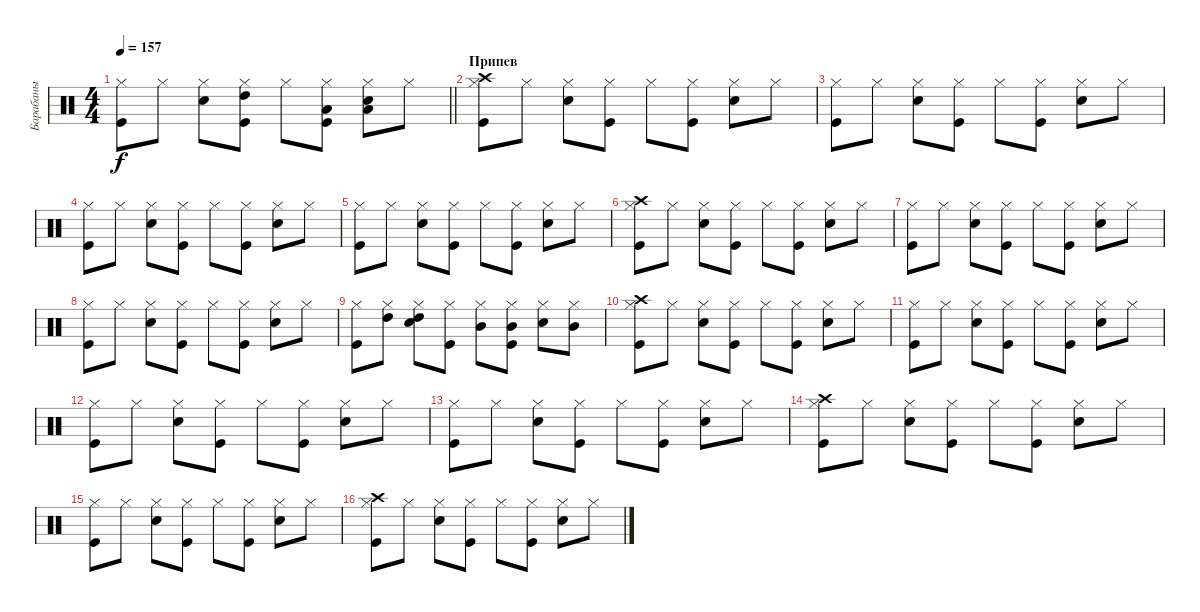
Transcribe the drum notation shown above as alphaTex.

\track ("Барабаны" "Барабаны") {instrument percussion}
\staff {score}
\articulation defaults
\ts (4 4)
\tempo 157
\clef neutral
\barLineRight lightlight
\ks c
("Kick (hit)" "Hi-Hat (closed)").8{dy f} "Hi-Hat (closed)".8 ("Snare (hit) 2" "Hi-Hat (closed)").8 ("Kick (hit)" "Hi-Hat (closed)" "High Tom (hit)").8 "Hi-Hat (closed)".8 ("Kick (hit)" "Hi-Hat (closed)" "Low Tom (hit)").8 ("Snare (hit) 2" "Hi-Hat (closed)" "Low Tom (hit)").8 "Hi-Hat (closed)".8 |
\section ("" "Припев")
("Kick (hit)" "Hi-Hat (closed)" "Crash high (hit)").8 "Hi-Hat (closed)".8 ("Snare (hit) 2" "Hi-Hat (closed)").8 ("Kick (hit)" "Hi-Hat (closed)").8 "Hi-Hat (closed)".8 ("Kick (hit)" "Hi-Hat (closed)").8 ("Snare (hit) 2" "Hi-Hat (closed)").8 "Hi-Hat (closed)".8 |
("Kick (hit)" "Hi-Hat (closed)").8 "Hi-Hat (closed)".8 ("Snare (hit) 2" "Hi-Hat (closed)").8 ("Kick (hit)" "Hi-Hat (closed)").8 "Hi-Hat (closed)".8 ("Kick (hit)" "Hi-Hat (closed)").8 ("Snare (hit) 2" "Hi-Hat (closed)").8 "Hi-Hat (closed)".8 |
("Kick (hit)" "Hi-Hat (closed)").8 "Hi-Hat (closed)".8 ("Snare (hit) 2" "Hi-Hat (closed)").8 ("Kick (hit)" "Hi-Hat (closed)").8 "Hi-Hat (closed)".8 ("Kick (hit)" "Hi-Hat (closed)").8 ("Snare (hit) 2" "Hi-Hat (closed)").8 "Hi-Hat (closed)".8 |
("Kick (hit)" "Hi-Hat (closed)").8 "Hi-Hat (closed)".8 ("Snare (hit) 2" "Hi-Hat (closed)").8 ("Kick (hit)" "Hi-Hat (closed)").8 "Hi-Hat (closed)".8 ("Kick (hit)" "Hi-Hat (closed)").8 ("Snare (hit) 2" "Hi-Hat (closed)").8 "Hi-Hat (closed)".8 |
("Kick (hit)" "Hi-Hat (closed)" "Crash high (hit)").8 "Hi-Hat (closed)".8 ("Snare (hit) 2" "Hi-Hat (closed)").8 ("Kick (hit)" "Hi-Hat (closed)").8 "Hi-Hat (closed)".8 ("Kick (hit)" "Hi-Hat (closed)").8 ("Snare (hit) 2" "Hi-Hat (closed)").8 "Hi-Hat (closed)".8 |
("Kick (hit)" "Hi-Hat (closed)").8 "Hi-Hat (closed)".8 ("Snare (hit) 2" "Hi-Hat (closed)").8 ("Kick (hit)" "Hi-Hat (closed)").8 "Hi-Hat (closed)".8 ("Kick (hit)" "Hi-Hat (closed)").8 ("Snare (hit) 2" "Hi-Hat (closed)").8 "Hi-Hat (closed)".8 |
("Kick (hit)" "Hi-Hat (closed)").8 "Hi-Hat (closed)".8 ("Snare (hit) 2" "Hi-Hat (closed)").8 ("Kick (hit)" "Hi-Hat (closed)").8 "Hi-Hat (closed)".8 ("Kick (hit)" "Hi-Hat (closed)").8 ("Snare (hit) 2" "Hi-Hat (closed)").8 "Hi-Hat (closed)".8 |
("Kick (hit)" "Hi-Hat (closed)").8 ("Hi-Hat (closed)" "High Tom (hit)").8 ("Snare (hit) 2" "Hi-Hat (closed)" "High Tom (hit)").8 ("Kick (hit)" "Hi-Hat (closed)").8 ("Hi-Hat (closed)" "Mid Tom (hit)").8 ("Kick (hit)" "Hi-Hat (closed)" "Mid Tom (hit)").8 ("Snare (hit) 2" "Hi-Hat (closed)").8 ("Hi-Hat (closed)" "Mid Tom (hit)").8 |
("Kick (hit)" "Hi-Hat (closed)" "Crash high (hit)").8 "Hi-Hat (closed)".8 ("Snare (hit) 2" "Hi-Hat (closed)").8 ("Kick (hit)" "Hi-Hat (closed)").8 "Hi-Hat (closed)".8 ("Kick (hit)" "Hi-Hat (closed)").8 ("Snare (hit) 2" "Hi-Hat (closed)").8 "Hi-Hat (closed)".8 |
("Kick (hit)" "Hi-Hat (closed)").8 "Hi-Hat (closed)".8 ("Snare (hit) 2" "Hi-Hat (closed)").8 ("Kick (hit)" "Hi-Hat (closed)").8 "Hi-Hat (closed)".8 ("Kick (hit)" "Hi-Hat (closed)").8 ("Snare (hit) 2" "Hi-Hat (closed)").8 "Hi-Hat (closed)".8 |
("Kick (hit)" "Hi-Hat (closed)").8 "Hi-Hat (closed)".8 ("Snare (hit) 2" "Hi-Hat (closed)").8 ("Kick (hit)" "Hi-Hat (closed)").8 "Hi-Hat (closed)".8 ("Kick (hit)" "Hi-Hat (closed)").8 ("Snare (hit) 2" "Hi-Hat (closed)").8 "Hi-Hat (closed)".8 |
("Kick (hit)" "Hi-Hat (closed)").8 "Hi-Hat (closed)".8 ("Snare (hit) 2" "Hi-Hat (closed)").8 ("Kick (hit)" "Hi-Hat (closed)").8 "Hi-Hat (closed)".8 ("Kick (hit)" "Hi-Hat (closed)").8 ("Snare (hit) 2" "Hi-Hat (closed)").8 "Hi-Hat (closed)".8 |
("Kick (hit)" "Hi-Hat (closed)" "Crash high (hit)").8 "Hi-Hat (closed)".8 ("Snare (hit) 2" "Hi-Hat (closed)").8 ("Kick (hit)" "Hi-Hat (closed)").8 "Hi-Hat (closed)".8 ("Kick (hit)" "Hi-Hat (closed)").8 ("Snare (hit) 2" "Hi-Hat (closed)").8 "Hi-Hat (closed)".8 |
("Kick (hit)" "Hi-Hat (closed)").8 "Hi-Hat (closed)".8 ("Snare (hit) 2" "Hi-Hat (closed)").8 ("Kick (hit)" "Hi-Hat (closed)").8 "Hi-Hat (closed)".8 ("Kick (hit)" "Hi-Hat (closed)").8 ("Snare (hit) 2" "Hi-Hat (closed)").8 "Hi-Hat (closed)".8 |
("Kick (hit)" "Hi-Hat (closed)" "Crash high (hit)").8 "Hi-Hat (closed)".8 ("Snare (hit) 2" "Hi-Hat (closed)").8 ("Kick (hit)" "Hi-Hat (closed)").8 "Hi-Hat (closed)".8 ("Kick (hit)" "Hi-Hat (closed)").8 ("Snare (hit) 2" "Hi-Hat (closed)").8 "Hi-Hat (closed)".8
